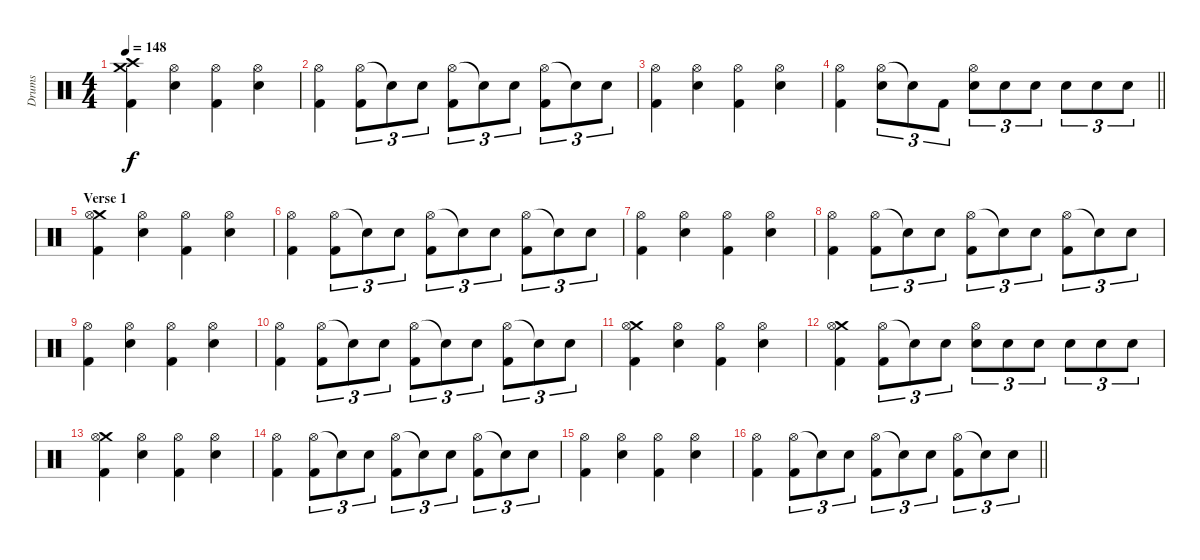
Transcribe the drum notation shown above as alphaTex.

\track ("Drums" "Drums") {instrument percussion}
\staff {score}
\articulation defaults
\ts (4 4)
\tempo 148
\clef neutral
\ks c
("Crash high (hit)" "Crash medium (hit)" "Kick (hit) 2").4{dy f} ("Hi-Hat (open)" "Snare (hit) 2").4 ("Hi-Hat (open)" "Kick (hit) 2").4 ("Hi-Hat (open)" "Snare (hit) 2").4 |
("Hi-Hat (open)" "Kick (hit) 2").4 ("Hi-Hat (open)" "Kick (hit) 2").8{tu (3 2)} "Snare (hit)"{t}.8{tu (3 2)} "Snare (hit) 2".8{tu (3 2)} ("Hi-Hat (open)" "Kick (hit) 2").8{tu (3 2)} "Snare (hit)"{t}.8{tu (3 2)} "Snare (hit) 2".8{tu (3 2)} ("Hi-Hat (open)" "Kick (hit) 2").8{tu (3 2)} "Snare (hit) 2"{t}.8{tu (3 2)} "Snare (hit) 2".8{tu (3 2)} |
("Hi-Hat (open)" "Kick (hit) 2").4 ("Hi-Hat (open)" "Snare (hit) 2").4 ("Hi-Hat (open)" "Kick (hit) 2").4 ("Hi-Hat (open)" "Snare (hit) 2").4 |
\barLineRight lightlight
("Hi-Hat (open)" "Kick (hit) 2").4 ("Hi-Hat (open)" "Snare (hit) 2").8{tu (3 2)} "Snare (hit)"{t}.8{tu (3 2)} "Kick (hit) 2".8{tu (3 2)} ("Hi-Hat (open)" "Snare (hit) 2").8{tu (3 2)} "Snare (hit) 2".8{tu (3 2)} "Snare (hit) 2".8{tu (3 2)} "Snare (hit) 2".8{tu (3 2)} "Snare (hit) 2".8{tu (3 2)} "Snare (hit) 2".8{tu (3 2)} |
\section ("" "Verse 1")
("Crash medium (hit)" "Hi-Hat (open)" "Kick (hit) 2").4 ("Hi-Hat (open)" "Snare (hit) 2").4 ("Hi-Hat (open)" "Kick (hit) 2").4 ("Hi-Hat (open)" "Snare (hit) 2").4 |
("Hi-Hat (open)" "Kick (hit) 2").4 ("Hi-Hat (open)" "Kick (hit) 2").8{tu (3 2)} "Snare (hit)"{t}.8{tu (3 2)} "Snare (hit) 2".8{tu (3 2)} ("Hi-Hat (open)" "Kick (hit) 2").8{tu (3 2)} "Snare (hit)"{t}.8{tu (3 2)} "Snare (hit) 2".8{tu (3 2)} ("Hi-Hat (open)" "Kick (hit) 2").8{tu (3 2)} "Snare (hit) 2"{t}.8{tu (3 2)} "Snare (hit) 2".8{tu (3 2)} |
("Hi-Hat (open)" "Kick (hit) 2").4 ("Hi-Hat (open)" "Snare (hit) 2").4 ("Hi-Hat (open)" "Kick (hit) 2").4 ("Hi-Hat (open)" "Snare (hit) 2").4 |
("Hi-Hat (open)" "Kick (hit) 2").4 ("Hi-Hat (open)" "Kick (hit) 2").8{tu (3 2)} "Snare (hit)"{t}.8{tu (3 2)} "Snare (hit) 2".8{tu (3 2)} ("Hi-Hat (open)" "Kick (hit) 2").8{tu (3 2)} "Snare (hit)"{t}.8{tu (3 2)} "Snare (hit) 2".8{tu (3 2)} ("Hi-Hat (open)" "Kick (hit) 2").8{tu (3 2)} "Snare (hit) 2"{t}.8{tu (3 2)} "Snare (hit) 2".8{tu (3 2)} |
("Hi-Hat (open)" "Kick (hit) 2").4 ("Hi-Hat (open)" "Snare (hit) 2").4 ("Hi-Hat (open)" "Kick (hit) 2").4 ("Hi-Hat (open)" "Snare (hit) 2").4 |
("Hi-Hat (open)" "Kick (hit) 2").4 ("Hi-Hat (open)" "Kick (hit) 2").8{tu (3 2)} "Snare (hit)"{t}.8{tu (3 2)} "Snare (hit) 2".8{tu (3 2)} ("Hi-Hat (open)" "Kick (hit) 2").8{tu (3 2)} "Snare (hit)"{t}.8{tu (3 2)} "Snare (hit) 2".8{tu (3 2)} ("Hi-Hat (open)" "Kick (hit) 2").8{tu (3 2)} "Snare (hit) 2"{t}.8{tu (3 2)} "Snare (hit) 2".8{tu (3 2)} |
("Crash medium (hit)" "Hi-Hat (open)" "Kick (hit) 2").4 ("Hi-Hat (open)" "Snare (hit) 2").4 ("Hi-Hat (open)" "Kick (hit) 2").4 ("Hi-Hat (open)" "Snare (hit) 2").4 |
("Crash medium (hit)" "Hi-Hat (open)" "Kick (hit) 2").4 ("Hi-Hat (open)" "Kick (hit) 2").8{tu (3 2)} "Snare (hit)"{t}.8{tu (3 2)} "Snare (hit) 2".8{tu (3 2)} ("Hi-Hat (open)" "Snare (hit) 2").8{tu (3 2)} "Snare (hit) 2".8{tu (3 2)} "Snare (hit) 2".8{tu (3 2)} "Snare (hit) 2".8{tu (3 2)} "Snare (hit) 2".8{tu (3 2)} "Snare (hit) 2".8{tu (3 2)} |
("Crash medium (hit)" "Hi-Hat (open)" "Kick (hit) 2").4 ("Hi-Hat (open)" "Snare (hit) 2").4 ("Hi-Hat (open)" "Kick (hit) 2").4 ("Hi-Hat (open)" "Snare (hit) 2").4 |
("Hi-Hat (open)" "Kick (hit) 2").4 ("Hi-Hat (open)" "Kick (hit) 2").8{tu (3 2)} "Snare (hit)"{t}.8{tu (3 2)} "Snare (hit) 2".8{tu (3 2)} ("Hi-Hat (open)" "Kick (hit) 2").8{tu (3 2)} "Snare (hit)"{t}.8{tu (3 2)} "Snare (hit) 2".8{tu (3 2)} ("Hi-Hat (open)" "Kick (hit) 2").8{tu (3 2)} "Snare (hit) 2"{t}.8{tu (3 2)} "Snare (hit) 2".8{tu (3 2)} |
("Hi-Hat (open)" "Kick (hit) 2").4 ("Hi-Hat (open)" "Snare (hit) 2").4 ("Hi-Hat (open)" "Kick (hit) 2").4 ("Hi-Hat (open)" "Snare (hit) 2").4 |
\barLineRight lightlight
("Hi-Hat (open)" "Kick (hit) 2").4 ("Hi-Hat (open)" "Kick (hit) 2").8{tu (3 2)} "Snare (hit)"{t}.8{tu (3 2)} "Snare (hit) 2".8{tu (3 2)} ("Hi-Hat (open)" "Kick (hit) 2").8{tu (3 2)} "Snare (hit)"{t}.8{tu (3 2)} "Snare (hit) 2".8{tu (3 2)} ("Hi-Hat (open)" "Kick (hit) 2").8{tu (3 2)} "Snare (hit) 2"{t}.8{tu (3 2)} "Snare (hit) 2".8{tu (3 2)}
